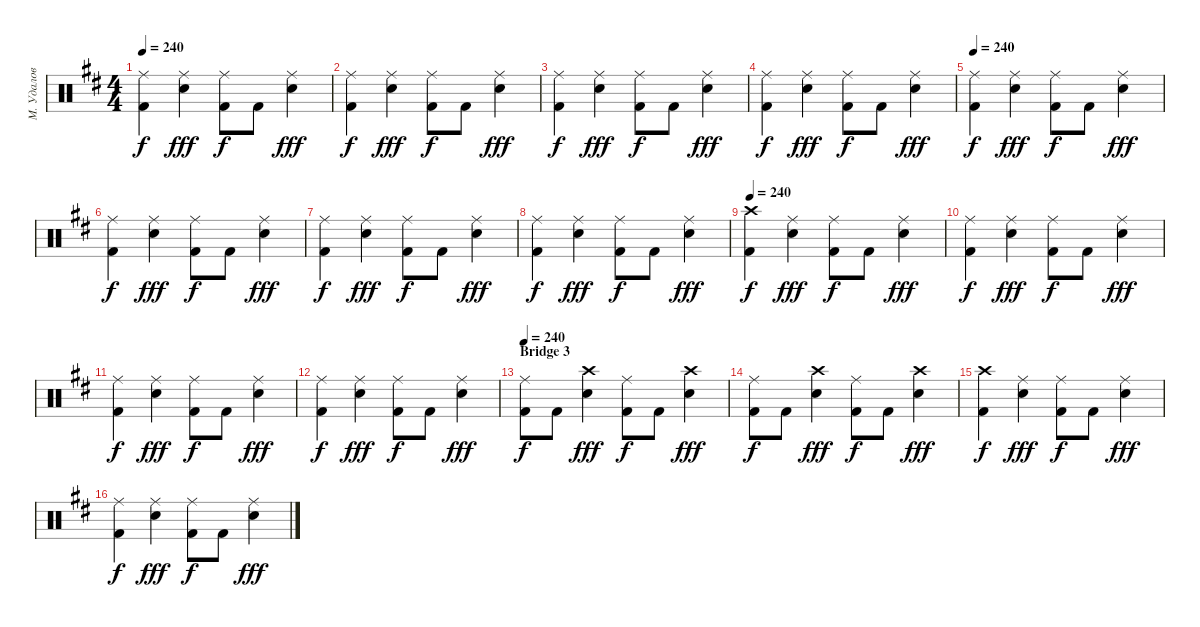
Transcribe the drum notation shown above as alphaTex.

\track ("М. Удалов" "М. Удалов") {instrument percussion}
\staff {score}
\articulation defaults
\ts (4 4)
\tempo 240
\clef neutral
\ks d
("Ride (middle)" "Kick (hit) 2").4{dy f} ("Ride (middle)" "Electric Snare (hit)").4{dy fff} ("Ride (middle)" "Kick (hit) 2").8{dy f} "Kick (hit) 2".8 ("Ride (middle)" "Electric Snare (hit)").4{dy fff} |
("Ride (middle)" "Kick (hit) 2").4{dy f} ("Ride (middle)" "Electric Snare (hit)").4{dy fff} ("Ride (middle)" "Kick (hit) 2").8{dy f} "Kick (hit) 2".8 ("Ride (middle)" "Electric Snare (hit)").4{dy fff} |
("Ride (middle)" "Kick (hit) 2").4{dy f} ("Ride (middle)" "Electric Snare (hit)").4{dy fff} ("Ride (middle)" "Kick (hit) 2").8{dy f} "Kick (hit) 2".8 ("Ride (middle)" "Electric Snare (hit)").4{dy fff} |
("Ride (middle)" "Kick (hit) 2").4{dy f} ("Ride (middle)" "Electric Snare (hit)").4{dy fff} ("Ride (middle)" "Kick (hit) 2").8{dy f} "Kick (hit) 2".8 ("Ride (middle)" "Electric Snare (hit)").4{dy fff} |
\tempo 240
("Ride (middle)" "Kick (hit) 2").4{dy f} ("Ride (middle)" "Electric Snare (hit)").4{dy fff} ("Ride (middle)" "Kick (hit) 2").8{dy f} "Kick (hit) 2".8 ("Ride (middle)" "Electric Snare (hit)").4{dy fff} |
("Ride (middle)" "Kick (hit) 2").4{dy f} ("Ride (middle)" "Electric Snare (hit)").4{dy fff} ("Ride (middle)" "Kick (hit) 2").8{dy f} "Kick (hit) 2".8 ("Ride (middle)" "Electric Snare (hit)").4{dy fff} |
("Ride (middle)" "Kick (hit) 2").4{dy f} ("Ride (middle)" "Electric Snare (hit)").4{dy fff} ("Ride (middle)" "Kick (hit) 2").8{dy f} "Kick (hit) 2".8 ("Ride (middle)" "Electric Snare (hit)").4{dy fff} |
("Ride (middle)" "Kick (hit) 2").4{dy f} ("Ride (middle)" "Electric Snare (hit)").4{dy fff} ("Ride (middle)" "Kick (hit) 2").8{dy f} "Kick (hit) 2".8 ("Ride (middle)" "Electric Snare (hit)").4{dy fff} |
\tempo 240
("Crash high (hit)" "Kick (hit) 2").4{dy f} ("Ride (middle)" "Electric Snare (hit)").4{dy fff} ("Ride (middle)" "Kick (hit) 2").8{dy f} "Kick (hit) 2".8 ("Ride (middle)" "Electric Snare (hit)").4{dy fff} |
("Ride (middle)" "Kick (hit) 2").4{dy f} ("Ride (middle)" "Electric Snare (hit)").4{dy fff} ("Ride (middle)" "Kick (hit) 2").8{dy f} "Kick (hit) 2".8 ("Ride (middle)" "Electric Snare (hit)").4{dy fff} |
("Ride (middle)" "Kick (hit) 2").4{dy f} ("Ride (middle)" "Electric Snare (hit)").4{dy fff} ("Ride (middle)" "Kick (hit) 2").8{dy f} "Kick (hit) 2".8 ("Ride (middle)" "Electric Snare (hit)").4{dy fff} |
("Ride (middle)" "Kick (hit) 2").4{dy f} ("Ride (middle)" "Electric Snare (hit)").4{dy fff} ("Ride (middle)" "Kick (hit) 2").8{dy f} "Kick (hit) 2".8 ("Ride (middle)" "Electric Snare (hit)").4{dy fff} |
\section ("" "Bridge 3")
\tempo 240
("Ride (middle)" "Kick (hit) 2").8{dy f} "Kick (hit) 2".8 ("Crash high (hit)" "Electric Snare (hit)").4{dy fff} ("Ride (middle)" "Kick (hit) 2").8{dy f} "Kick (hit) 2".8 ("Crash high (hit)" "Electric Snare (hit)").4{dy fff} |
("Ride (middle)" "Kick (hit) 2").8{dy f} "Kick (hit) 2".8 ("Crash high (hit)" "Electric Snare (hit)").4{dy fff} ("Ride (middle)" "Kick (hit) 2").8{dy f} "Kick (hit) 2".8 ("Crash high (hit)" "Electric Snare (hit)").4{dy fff} |
("Crash high (hit)" "Kick (hit) 2").4{dy f} ("Ride (middle)" "Electric Snare (hit)").4{dy fff} ("Ride (middle)" "Kick (hit) 2").8{dy f} "Kick (hit) 2".8 ("Ride (middle)" "Electric Snare (hit)").4{dy fff} |
("Ride (middle)" "Kick (hit) 2").4{dy f} ("Ride (middle)" "Electric Snare (hit)").4{dy fff} ("Ride (middle)" "Kick (hit) 2").8{dy f} "Kick (hit) 2".8 ("Ride (middle)" "Electric Snare (hit)").4{dy fff}
